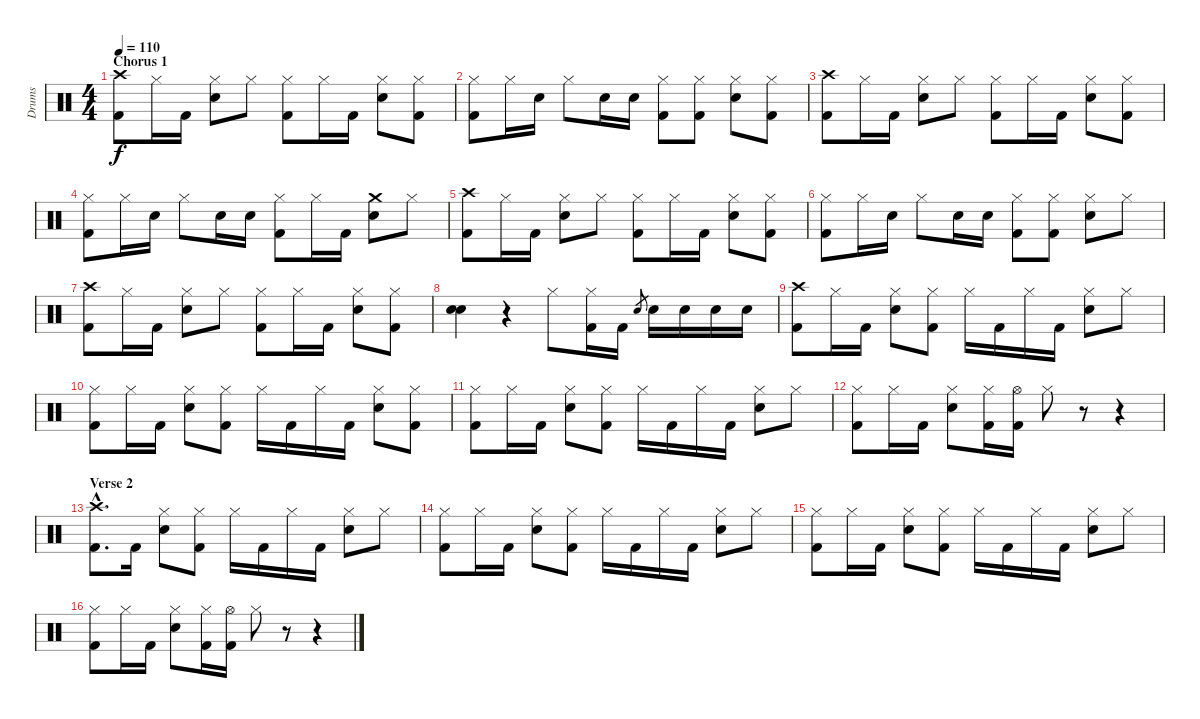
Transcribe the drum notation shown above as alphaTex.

\track ("Drums" "Drums") {instrument percussion}
\staff {score}
\articulation defaults
\ts (4 4)
\section ("" "Chorus 1")
\tempo 110
\clef neutral
\ks c
("Crash high (hit)" "Kick (hit) 2").8{dy f} "Hi-Hat (closed)".16 "Kick (hit) 2".16 ("Hi-Hat (closed)" "Electric Snare (hit)").8 "Hi-Hat (closed)".8 ("Hi-Hat (closed)" "Kick (hit) 2").8 "Hi-Hat (closed)".16 "Kick (hit) 2".16 ("Hi-Hat (closed)" "Electric Snare (hit)").8 ("Hi-Hat (closed)" "Kick (hit) 2").8 |
("Hi-Hat (closed)" "Kick (hit) 2").8 "Hi-Hat (closed)".16 "Electric Snare (hit)".16 "Hi-Hat (closed)".8 "Electric Snare (hit)".16 "Electric Snare (hit)".16 ("Hi-Hat (closed)" "Kick (hit) 2").8 ("Hi-Hat (closed)" "Kick (hit) 2").8 ("Hi-Hat (closed)" "Electric Snare (hit)").8 ("Hi-Hat (closed)" "Kick (hit) 2").8 |
("Crash high (hit)" "Kick (hit) 2").8 "Hi-Hat (closed)".16 "Kick (hit) 2".16 ("Hi-Hat (closed)" "Electric Snare (hit)").8 "Hi-Hat (closed)".8 ("Hi-Hat (closed)" "Kick (hit) 2").8 "Hi-Hat (closed)".16 "Kick (hit) 2".16 ("Hi-Hat (closed)" "Electric Snare (hit)").8 ("Hi-Hat (closed)" "Kick (hit) 2").8 |
("Hi-Hat (closed)" "Kick (hit) 2").8 "Hi-Hat (closed)".16 "Electric Snare (hit)".16 "Hi-Hat (closed)".8 "Electric Snare (hit)".16 "Electric Snare (hit)".16 ("Hi-Hat (closed)" "Kick (hit) 2").8 "Hi-Hat (closed)".16 "Kick (hit) 2".16 ("Crash medium (hit)" "Electric Snare (hit)").8 "Hi-Hat (closed)".8 |
("Crash high (hit)" "Kick (hit) 2").8 "Hi-Hat (closed)".16 "Kick (hit) 2".16 ("Hi-Hat (closed)" "Electric Snare (hit)").8 "Hi-Hat (closed)".8 ("Hi-Hat (closed)" "Kick (hit) 2").8 "Hi-Hat (closed)".16 "Kick (hit) 2".16 ("Hi-Hat (closed)" "Electric Snare (hit)").8 ("Hi-Hat (closed)" "Kick (hit) 2").8 |
("Hi-Hat (closed)" "Kick (hit) 2").8 "Hi-Hat (closed)".16 "Electric Snare (hit)".16 "Hi-Hat (closed)".8 "Electric Snare (hit)".16 "Electric Snare (hit)".16 ("Hi-Hat (closed)" "Kick (hit) 2").8 ("Hi-Hat (closed)" "Kick (hit) 2").8 ("Hi-Hat (closed)" "Electric Snare (hit)").8 "Hi-Hat (closed)".8 |
("Crash high (hit)" "Kick (hit) 2").8 "Hi-Hat (closed)".16 "Kick (hit) 2".16 ("Hi-Hat (closed)" "Electric Snare (hit)").8 "Hi-Hat (closed)".8 ("Hi-Hat (closed)" "Kick (hit) 2").8 "Hi-Hat (closed)".16 "Kick (hit) 2".16 ("Hi-Hat (closed)" "Electric Snare (hit)").8 ("Hi-Hat (closed)" "Kick (hit) 2").8 |
("Electric Snare (hit)" "Electric Snare (hit)").4 r.4 "Hi-Hat (closed)".8 ("Hi-Hat (closed)" "Kick (hit) 2").16 "Kick (hit) 2".16 "Electric Snare (hit)".8{gr} "Electric Snare (hit)".16 "Electric Snare (hit)".16 "Electric Snare (hit)".16 "Electric Snare (hit)".16 |
("Crash high (hit)" "Kick (hit) 2").8 "Hi-Hat (closed)".16 "Kick (hit) 2".16 ("Hi-Hat (closed)" "Electric Snare (hit)").8 ("Hi-Hat (closed)" "Kick (hit) 2").8 "Hi-Hat (closed)".16 "Kick (hit) 2".16 "Hi-Hat (closed)".16 "Kick (hit) 2".16 ("Hi-Hat (closed)" "Electric Snare (hit)").8 "Hi-Hat (closed)".8 |
("Hi-Hat (closed)" "Kick (hit) 2").8 "Hi-Hat (closed)".16 "Kick (hit) 2".16 ("Hi-Hat (closed)" "Electric Snare (hit)").8 ("Hi-Hat (closed)" "Kick (hit) 2").8 "Hi-Hat (closed)".16 "Kick (hit) 2".16 "Hi-Hat (closed)".16 "Kick (hit) 2".16 ("Hi-Hat (closed)" "Electric Snare (hit)").8 ("Hi-Hat (closed)" "Kick (hit) 2").8 |
("Hi-Hat (closed)" "Kick (hit) 2").8 "Hi-Hat (closed)".16 "Kick (hit) 2".16 ("Hi-Hat (closed)" "Electric Snare (hit)").8 ("Hi-Hat (closed)" "Kick (hit) 2").8 "Hi-Hat (closed)".16 "Kick (hit) 2".16 "Hi-Hat (closed)".16 "Kick (hit) 2".16 ("Hi-Hat (closed)" "Electric Snare (hit)").8 "Hi-Hat (closed)".8 |
("Hi-Hat (closed)" "Kick (hit) 2").8 "Hi-Hat (closed)".16 "Kick (hit) 2".16 ("Hi-Hat (closed)" "Electric Snare (hit)").8 ("Hi-Hat (closed)" "Kick (hit) 2").16 ("Hi-Hat (open)" "Kick (hit) 2").16 "Hi-Hat (closed)".8 r.8 r.4 |
\section ("" "Verse 2")
("Crash high (hit)"{hac} "Kick (hit) 2"{hac}).8{d} "Kick (hit) 2".16 ("Hi-Hat (closed)" "Electric Snare (hit)").8 ("Hi-Hat (closed)" "Kick (hit) 2").8 "Hi-Hat (closed)".16 "Kick (hit) 2".16 "Hi-Hat (closed)".16 "Kick (hit) 2".16 ("Hi-Hat (closed)" "Electric Snare (hit)").8 "Hi-Hat (closed)".8 |
("Hi-Hat (closed)" "Kick (hit) 2").8 "Hi-Hat (closed)".16 "Kick (hit) 2".16 ("Hi-Hat (closed)" "Electric Snare (hit)").8 ("Hi-Hat (closed)" "Kick (hit) 2").8 "Hi-Hat (closed)".16 "Kick (hit) 2".16 "Hi-Hat (closed)".16 "Kick (hit) 2".16 ("Hi-Hat (closed)" "Electric Snare (hit)").8 "Hi-Hat (closed)".8 |
("Hi-Hat (closed)" "Kick (hit) 2").8 "Hi-Hat (closed)".16 "Kick (hit) 2".16 ("Hi-Hat (closed)" "Electric Snare (hit)").8 ("Hi-Hat (closed)" "Kick (hit) 2").8 "Hi-Hat (closed)".16 "Kick (hit) 2".16 "Hi-Hat (closed)".16 "Kick (hit) 2".16 ("Hi-Hat (closed)" "Electric Snare (hit)").8 "Hi-Hat (closed)".8 |
("Hi-Hat (closed)" "Kick (hit) 2").8 "Hi-Hat (closed)".16 "Kick (hit) 2".16 ("Hi-Hat (closed)" "Electric Snare (hit)").8 ("Hi-Hat (closed)" "Kick (hit) 2").16 ("Hi-Hat (open)" "Kick (hit) 2").16 "Hi-Hat (closed)".8 r.8 r.4
